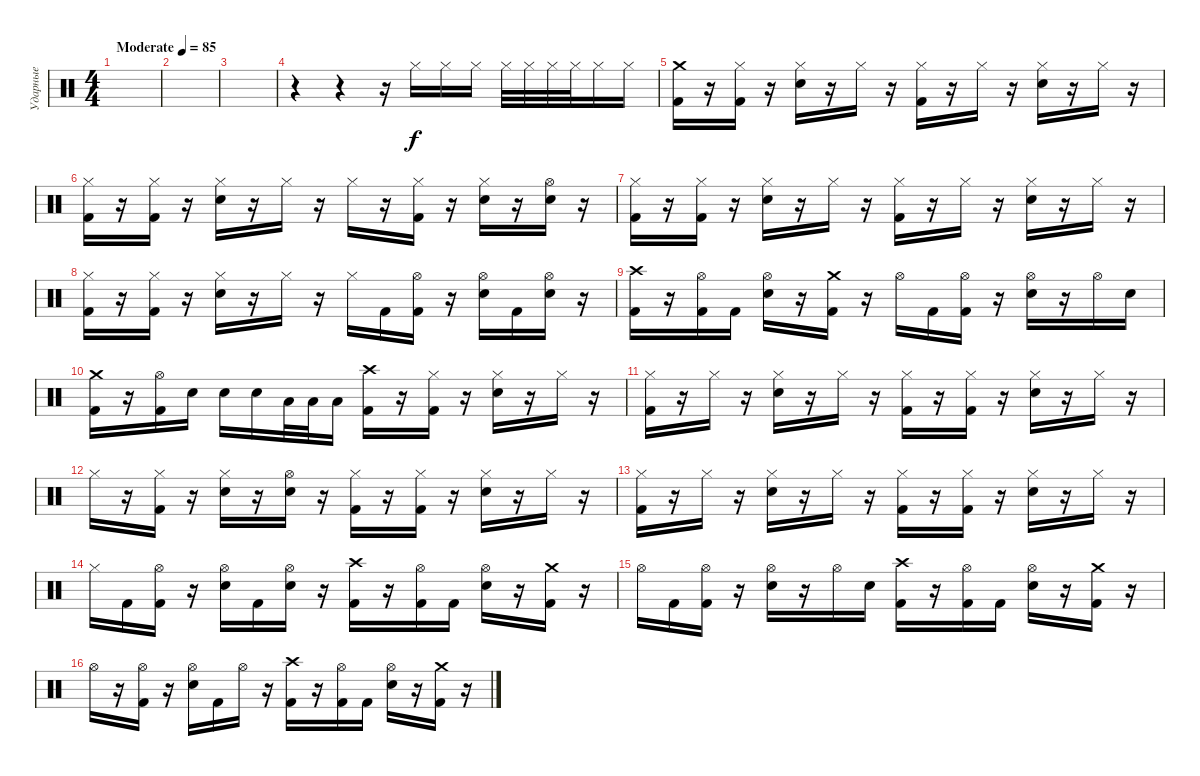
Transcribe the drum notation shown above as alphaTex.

\track ("Ударные" "Ударные") {instrument percussion}
\staff {score}
\articulation defaults
\ts (4 4)
\tempo (85 "Moderate")
\clef neutral
\ks c
|
|
|
r.4 r.4 r.16 "Hi-Hat (closed)".16 "Hi-Hat (closed)".16 "Hi-Hat (closed)".16 "Hi-Hat (closed)".32 "Hi-Hat (closed)".32 "Hi-Hat (closed)".32 "Hi-Hat (closed)".32 "Hi-Hat (closed)".16 "Hi-Hat (closed)".16 |
("Crash medium (hit)" "Kick (hit) 2").16 r.16 ("Hi-Hat (closed)" "Kick (hit) 2").16 r.16 ("Hi-Hat (closed)" "Electric Snare (hit)").16 r.16 "Hi-Hat (closed)".16 r.16 ("Hi-Hat (closed)" "Kick (hit) 2").16 r.16 "Hi-Hat (closed)".16 r.16 ("Hi-Hat (closed)" "Electric Snare (hit)").16 r.16 "Hi-Hat (closed)".16 r.16 |
("Hi-Hat (closed)" "Kick (hit) 2").16 r.16 ("Hi-Hat (closed)" "Kick (hit) 2").16 r.16 ("Hi-Hat (closed)" "Electric Snare (hit)").16 r.16 "Hi-Hat (closed)".16 r.16 "Hi-Hat (closed)".16 r.16 ("Hi-Hat (closed)" "Kick (hit) 2").16 r.16 ("Hi-Hat (closed)" "Electric Snare (hit)").16 r.16 ("Hi-Hat (open)" "Electric Snare (hit)").16 r.16 |
("Hi-Hat (closed)" "Kick (hit) 2").16 r.16 ("Hi-Hat (closed)" "Kick (hit) 2").16 r.16 ("Hi-Hat (closed)" "Electric Snare (hit)").16 r.16 "Hi-Hat (closed)".16 r.16 ("Hi-Hat (closed)" "Kick (hit) 2").16 r.16 "Hi-Hat (closed)".16 r.16 ("Hi-Hat (closed)" "Electric Snare (hit)").16 r.16 "Hi-Hat (closed)".16 r.16 |
("Hi-Hat (closed)" "Kick (hit) 2").16 r.16 ("Hi-Hat (closed)" "Kick (hit) 2").16 r.16 ("Hi-Hat (closed)" "Electric Snare (hit)").16 r.16 "Hi-Hat (closed)".16 r.16 "Hi-Hat (closed)".16 "Kick (hit) 2".16 ("Hi-Hat (open)" "Kick (hit) 2").16 r.16 ("Hi-Hat (open)" "Electric Snare (hit)").16 "Kick (hit) 2".16 ("Hi-Hat (open)" "Electric Snare (hit)").16 r.16 |
("Crash high (hit)" "Kick (hit) 2").16 r.16 ("Hi-Hat (open)" "Kick (hit) 2").16 "Kick (hit) 2".16 ("Hi-Hat (open)" "Electric Snare (hit)").16 r.16 ("Crash medium (hit)" "Kick (hit) 2").16 r.16 "Hi-Hat (open)".16 "Kick (hit) 2".16 ("Hi-Hat (open)" "Kick (hit) 2").16 r.16 ("Hi-Hat (open)" "Electric Snare (hit)").16 r.16 "Hi-Hat (open)".16 "Electric Snare (hit)".16 |
("Crash medium (hit)" "Kick (hit) 2").16 r.16 ("Hi-Hat (open)" "Kick (hit) 2").16 "Electric Snare (hit)".16 "Electric Snare (hit)".16 "Electric Snare (hit)".16 "Low Tom (hit)".32 "Low Tom (hit)".32 "Low Tom (hit)".16 ("Crash high (hit)" "Kick (hit) 2").16 r.16 ("Hi-Hat (closed)" "Kick (hit) 2").16 r.16 ("Hi-Hat (closed)" "Electric Snare (hit)").16 r.16 "Hi-Hat (closed)".16 r.16 |
("Hi-Hat (closed)" "Kick (hit) 2").16 r.16 "Hi-Hat (closed)".16 r.16 ("Hi-Hat (closed)" "Electric Snare (hit)").16 r.16 "Hi-Hat (closed)".16 r.16 ("Hi-Hat (closed)" "Kick (hit) 2").16 r.16 ("Hi-Hat (closed)" "Kick (hit) 2").16 r.16 ("Hi-Hat (closed)" "Electric Snare (hit)").16 r.16 "Hi-Hat (closed)".16 r.16 |
"Hi-Hat (closed)".16 r.16 ("Hi-Hat (closed)" "Kick (hit) 2").16 r.16 ("Hi-Hat (closed)" "Electric Snare (hit)").16 r.16 ("Hi-Hat (open)" "Electric Snare (hit)").16 r.16 ("Hi-Hat (closed)" "Kick (hit) 2").16 r.16 ("Hi-Hat (closed)" "Kick (hit) 2").16 r.16 ("Hi-Hat (closed)" "Electric Snare (hit)").16 r.16 "Hi-Hat (closed)".16 r.16 |
("Hi-Hat (closed)" "Kick (hit) 2").16 r.16 "Hi-Hat (closed)".16 r.16 ("Hi-Hat (closed)" "Electric Snare (hit)").16 r.16 "Hi-Hat (closed)".16 r.16 ("Hi-Hat (closed)" "Kick (hit) 2").16 r.16 ("Hi-Hat (closed)" "Kick (hit) 2").16 r.16 ("Hi-Hat (closed)" "Electric Snare (hit)").16 r.16 "Hi-Hat (closed)".16 r.16 |
"Hi-Hat (closed)".16 "Kick (hit) 2".16 ("Hi-Hat (open)" "Kick (hit) 2").16 r.16 ("Hi-Hat (open)" "Electric Snare (hit)").16 "Kick (hit) 2".16 ("Hi-Hat (open)" "Electric Snare (hit)").16 r.16 ("Crash high (hit)" "Kick (hit) 2").16 r.16 ("Hi-Hat (open)" "Kick (hit) 2").16 "Kick (hit) 2".16 ("Hi-Hat (open)" "Electric Snare (hit)").16 r.16 ("Crash medium (hit)" "Kick (hit) 2").16 r.16 |
"Hi-Hat (open)".16 "Kick (hit) 2".16 ("Hi-Hat (open)" "Kick (hit) 2").16 r.16 ("Hi-Hat (open)" "Electric Snare (hit)").16 r.16 "Hi-Hat (open)".16 "Electric Snare (hit)".16 ("Crash high (hit)" "Kick (hit) 2").16 r.16 ("Hi-Hat (open)" "Kick (hit) 2").16 "Kick (hit) 2".16 ("Hi-Hat (open)" "Electric Snare (hit)").16 r.16 ("Crash medium (hit)" "Kick (hit) 2").16 r.16 |
"Hi-Hat (open)".16 r.16 ("Hi-Hat (open)" "Kick (hit) 2").16 r.16 ("Hi-Hat (open)" "Electric Snare (hit)").16 "Kick (hit) 2".16 "Hi-Hat (open)".16 r.16 ("Crash high (hit)" "Kick (hit) 2").16 r.16 ("Hi-Hat (open)" "Kick (hit) 2").16 "Kick (hit) 2".16 ("Hi-Hat (open)" "Electric Snare (hit)").16 r.16 ("Crash medium (hit)" "Kick (hit) 2").16 r.16
